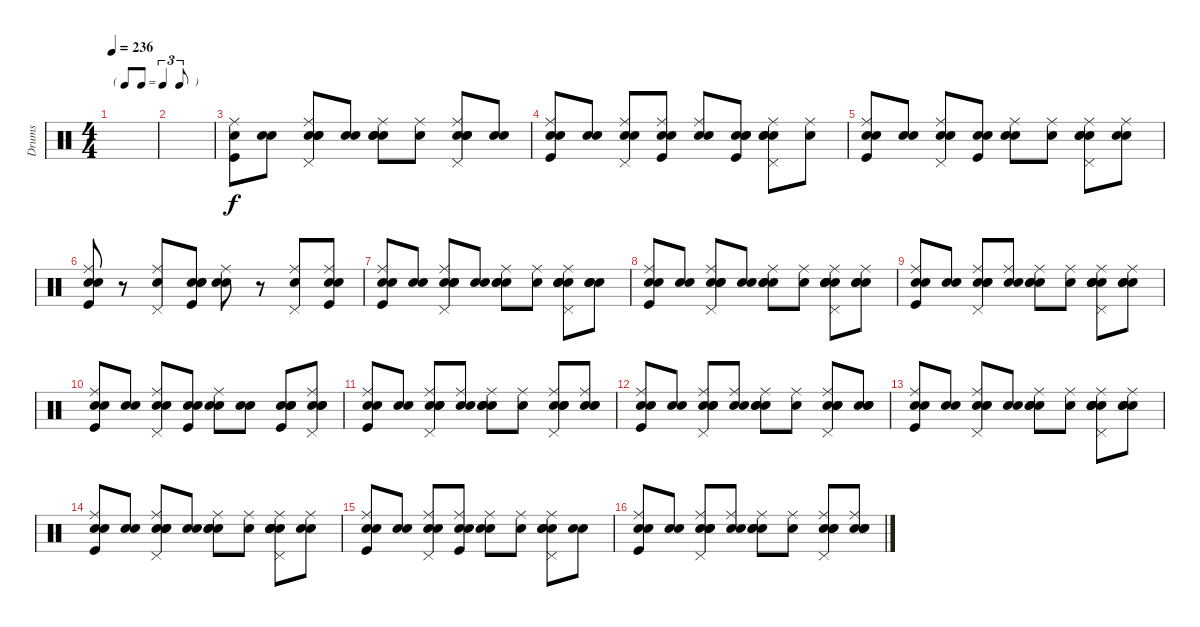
\track ("Drums" "Drums") {instrument percussion}
\staff {score}
\articulation defaults
\ts (4 4)
\tf triplet8th
\tempo 236
\clef neutral
\ks c
|
|
("Kick (hit)" "Electric Snare (hit)" "Ride (middle)").8 ("Snare (hit)" "Electric Snare (hit)").8 ("Snare (hit)" "Snare (hit) 2" "Electric Snare (hit)" "Ride (middle)" "Pedal Hi-Hat (hit)").8 ("Snare (hit)" "Snare (hit) 2").8 ("Snare (hit)" "Snare (hit) 2" "Electric Snare (hit)" "Ride (middle)").8 ("Snare (hit)" "Ride (middle)").8 ("Snare (hit)" "Snare (hit) 2" "Electric Snare (hit)" "Ride (middle)" "Pedal Hi-Hat (hit)").8 ("Snare (hit)" "Snare (hit) 2").8 |
("Snare (hit)" "Kick (hit)" "Electric Snare (hit)" "Ride (middle)").8 ("Snare (hit)" "Electric Snare (hit)").8 ("Snare (hit)" "Snare (hit) 2" "Ride (middle)" "Pedal Hi-Hat (hit)").8 ("Snare (hit)" "Kick (hit)" "Snare (hit) 2" "Ride (middle)").8 ("Snare (hit)" "Electric Snare (hit)" "Ride (middle)").8 ("Snare (hit)" "Kick (hit)" "Electric Snare (hit)" "Hand Clap (hit)").8 ("Snare (hit)" "Electric Snare (hit)" "Ride (middle)" "Pedal Hi-Hat (hit)" "Hand Clap (hit)").8 ("Snare (hit)" "Ride (middle)").8 |
("Snare (hit)" "Kick (hit)" "Electric Snare (hit)" "Ride (middle)").8 ("Snare (hit)" "Electric Snare (hit)").8 ("Snare (hit)" "Snare (hit) 2" "Ride (middle)" "Pedal Hi-Hat (hit)").8 ("Snare (hit)" "Kick (hit)" "Hand Clap (hit)").8 ("Snare (hit)" "Electric Snare (hit)" "Ride (middle)").8 ("Snare (hit)" "Ride (middle)").8 ("Snare (hit)" "Snare (hit) 2" "Ride (middle)" "Pedal Hi-Hat (hit)" "Hand Clap (hit)").8 ("Snare (hit)" "Snare (hit) 2" "Ride (middle)").8 |
("Snare (hit)" "Kick (hit)" "Electric Snare (hit)" "Ride (middle)").8 r.8 ("Snare (hit) 2" "Ride (middle)" "Pedal Hi-Hat (hit)").8 ("Snare (hit)" "Kick (hit)" "Snare (hit) 2" "Hand Clap (hit)").8 ("Snare (hit)" "Electric Snare (hit)" "Ride (middle)").8 r.8 ("Snare (hit) 2" "Ride (middle)" "Pedal Hi-Hat (hit)").8 ("Snare (hit)" "Kick (hit)" "Ride (middle)" "Hand Clap (hit)").8 |
("Snare (hit)" "Kick (hit)" "Electric Snare (hit)" "Ride (middle)").8 ("Snare (hit)" "Electric Snare (hit)").8 ("Snare (hit)" "Snare (hit) 2" "Electric Snare (hit)" "Ride (middle)" "Pedal Hi-Hat (hit)").8 ("Snare (hit)" "Snare (hit) 2").8 ("Snare (hit)" "Snare (hit) 2" "Electric Snare (hit)" "Ride (middle)").8 ("Snare (hit)" "Ride (middle)").8 ("Snare (hit)" "Snare (hit) 2" "Electric Snare (hit)" "Ride (middle)" "Pedal Hi-Hat (hit)" "Hand Clap (hit)").8 ("Snare (hit)" "Snare (hit) 2" "Hand Clap (hit)").8 |
("Snare (hit)" "Kick (hit)" "Electric Snare (hit)" "Ride (middle)").8 ("Snare (hit)" "Electric Snare (hit)").8 ("Snare (hit)" "Snare (hit) 2" "Electric Snare (hit)" "Ride (middle)" "Pedal Hi-Hat (hit)").8 ("Snare (hit)" "Snare (hit) 2").8 ("Snare (hit)" "Snare (hit) 2" "Electric Snare (hit)" "Ride (middle)").8 ("Snare (hit)" "Ride (middle)").8 ("Snare (hit)" "Snare (hit) 2" "Electric Snare (hit)" "Ride (middle)" "Pedal Hi-Hat (hit)" "Hand Clap (hit)").8 ("Snare (hit)" "Snare (hit) 2" "Ride (middle)" "Hand Clap (hit)").8 |
("Snare (hit)" "Kick (hit)" "Electric Snare (hit)" "Ride (middle)").8 ("Snare (hit)" "Electric Snare (hit)").8 ("Snare (hit)" "Snare (hit) 2" "Electric Snare (hit)" "Ride (middle)" "Pedal Hi-Hat (hit)").8 ("Snare (hit)" "Snare (hit) 2" "Ride (middle)").8 ("Snare (hit)" "Snare (hit) 2" "Electric Snare (hit)" "Ride (middle)").8 ("Snare (hit)" "Ride (middle)").8 ("Snare (hit)" "Snare (hit) 2" "Electric Snare (hit)" "Ride (middle)" "Pedal Hi-Hat (hit)" "Hand Clap (hit)").8 ("Snare (hit)" "Snare (hit) 2" "Ride (middle)" "Hand Clap (hit)").8 |
("Snare (hit)" "Kick (hit)" "Electric Snare (hit)" "Ride (middle)").8 ("Snare (hit)" "Electric Snare (hit)").8 ("Snare (hit)" "Snare (hit) 2" "Ride (middle)" "Pedal Hi-Hat (hit)").8 ("Snare (hit)" "Kick (hit)" "Hand Clap (hit)").8 ("Snare (hit)" "Electric Snare (hit)" "Ride (middle)").8 ("Snare (hit)" "Snare (hit) 2").8 ("Snare (hit)" "Kick (hit)" "Electric Snare (hit)" "Hand Clap (hit)").8 ("Snare (hit)" "Electric Snare (hit)" "Ride (middle)" "Pedal Hi-Hat (hit)" "Hand Clap (hit)").8 |
("Snare (hit)" "Kick (hit)" "Electric Snare (hit)" "Ride (middle)").8 ("Snare (hit)" "Electric Snare (hit)").8 ("Snare (hit)" "Snare (hit) 2" "Electric Snare (hit)" "Ride (middle)" "Pedal Hi-Hat (hit)").8 ("Snare (hit)" "Snare (hit) 2" "Ride (middle)").8 ("Snare (hit)" "Snare (hit) 2" "Electric Snare (hit)" "Ride (middle)").8 ("Snare (hit)" "Ride (middle)").8 ("Snare (hit)" "Snare (hit) 2" "Electric Snare (hit)" "Ride (middle)" "Pedal Hi-Hat (hit)").8 ("Snare (hit)" "Snare (hit) 2" "Ride (middle)" "Hand Clap (hit)").8 |
("Snare (hit)" "Kick (hit)" "Electric Snare (hit)" "Ride (middle)").8 ("Snare (hit)" "Electric Snare (hit)").8 ("Snare (hit)" "Snare (hit) 2" "Electric Snare (hit)" "Ride (middle)" "Pedal Hi-Hat (hit)").8 ("Snare (hit)" "Snare (hit) 2" "Ride (middle)").8 ("Snare (hit)" "Snare (hit) 2" "Electric Snare (hit)" "Ride (middle)").8 ("Snare (hit)" "Ride (middle)").8 ("Snare (hit)" "Snare (hit) 2" "Electric Snare (hit)" "Ride (middle)" "Pedal Hi-Hat (hit)").8 ("Snare (hit)" "Snare (hit) 2" "Hand Clap (hit)").8 |
("Snare (hit)" "Kick (hit)" "Electric Snare (hit)" "Ride (middle)").8 ("Snare (hit)" "Electric Snare (hit)").8 ("Snare (hit)" "Snare (hit) 2" "Electric Snare (hit)" "Ride (middle)" "Pedal Hi-Hat (hit)").8 ("Snare (hit)" "Snare (hit) 2").8 ("Snare (hit)" "Snare (hit) 2" "Electric Snare (hit)" "Ride (middle)").8 ("Snare (hit)" "Ride (middle)").8 ("Snare (hit)" "Snare (hit) 2" "Electric Snare (hit)" "Ride (middle)" "Pedal Hi-Hat (hit)" "Hand Clap (hit)").8 ("Snare (hit)" "Snare (hit) 2" "Ride (middle)" "Hand Clap (hit)").8 |
("Snare (hit)" "Kick (hit)" "Electric Snare (hit)" "Ride (middle)").8 ("Snare (hit)" "Electric Snare (hit)").8 ("Snare (hit)" "Snare (hit) 2" "Electric Snare (hit)" "Ride (middle)" "Pedal Hi-Hat (hit)").8 ("Snare (hit)" "Snare (hit) 2").8 ("Snare (hit)" "Snare (hit) 2" "Electric Snare (hit)" "Ride (middle)").8 ("Snare (hit)" "Ride (middle)").8 ("Snare (hit)" "Snare (hit) 2" "Electric Snare (hit)" "Ride (middle)" "Pedal Hi-Hat (hit)" "Hand Clap (hit)").8 ("Snare (hit)" "Snare (hit) 2" "Ride (middle)").8 |
("Snare (hit)" "Kick (hit)" "Electric Snare (hit)" "Ride (middle)").8 ("Snare (hit)" "Electric Snare (hit)").8 ("Snare (hit)" "Snare (hit) 2" "Ride (middle)" "Pedal Hi-Hat (hit)").8 ("Snare (hit)" "Kick (hit)" "Snare (hit) 2" "Ride (middle)").8 ("Snare (hit)" "Electric Snare (hit)" "Ride (middle)").8 ("Snare (hit)" "Ride (middle)").8 ("Snare (hit)" "Snare (hit) 2" "Ride (middle)" "Pedal Hi-Hat (hit)" "Hand Clap (hit)").8 ("Snare (hit)" "Hand Clap (hit)").8 |
("Snare (hit)" "Kick (hit)" "Electric Snare (hit)" "Ride (middle)").8 ("Snare (hit)" "Electric Snare (hit)").8 ("Snare (hit)" "Snare (hit) 2" "Electric Snare (hit)" "Ride (middle)" "Pedal Hi-Hat (hit)").8 ("Snare (hit)" "Snare (hit) 2" "Ride (middle)").8 ("Snare (hit)" "Snare (hit) 2" "Electric Snare (hit)" "Ride (middle)").8 ("Snare (hit)" "Ride (middle)").8 ("Snare (hit)" "Snare (hit) 2" "Electric Snare (hit)" "Ride (middle)" "Pedal Hi-Hat (hit)").8 ("Snare (hit)" "Snare (hit) 2" "Ride (middle)" "Hand Clap (hit)").8
